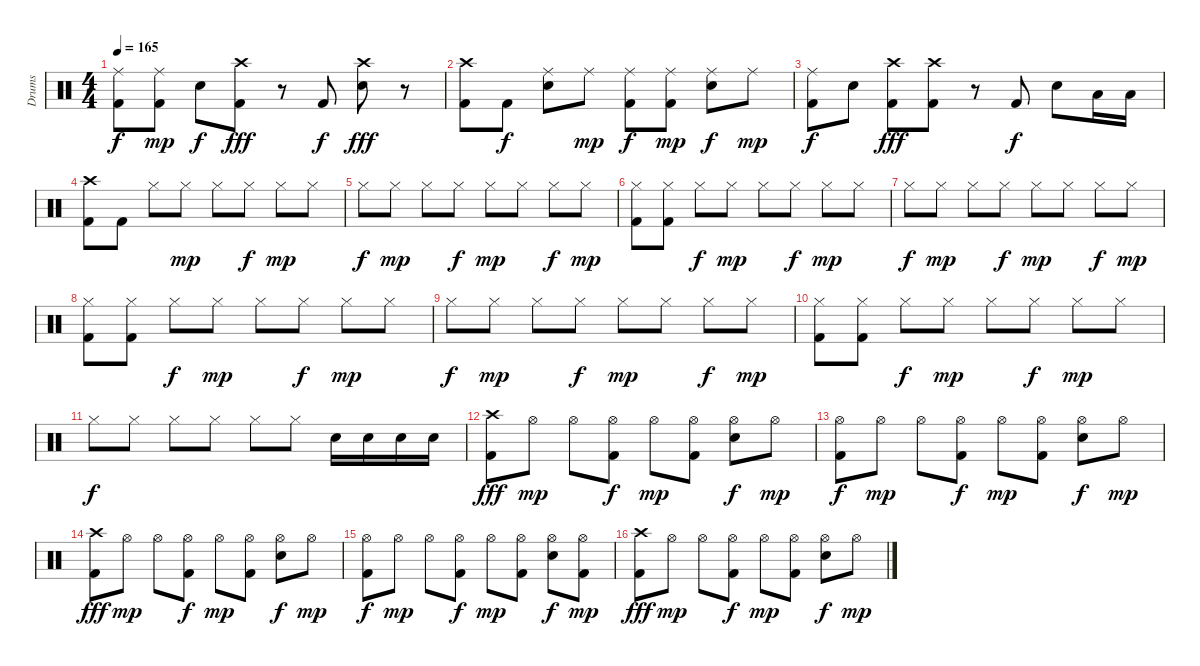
\track ("Drums" "Drums") {instrument percussion}
\staff {score}
\articulation defaults
\ts (4 4)
\tempo 165
\clef neutral
\ks c
("Ride (middle)" "Kick (hit) 2").8{dy f} ("Ride (middle)" "Kick (hit) 2").8{dy mp} "Electric Snare (hit)".8{dy f} ("Crash high (hit)" "Kick (hit) 2").8{dy fff} r.8 "Kick (hit) 2".8{dy f} ("Crash high (hit)" "Electric Snare (hit)").8{dy fff} r.8 |
("Crash high (hit)" "Kick (hit) 2").8 "Kick (hit) 2".8{dy f} ("Ride (middle)" "Electric Snare (hit)").8 "Ride (middle)".8{dy mp} ("Ride (middle)" "Kick (hit) 2").8{dy f} ("Ride (middle)" "Kick (hit) 2").8{dy mp} ("Ride (middle)" "Electric Snare (hit)").8{dy f} "Ride (middle)".8{dy mp} |
("Ride (middle)" "Kick (hit) 2").8{dy f} "Electric Snare (hit)".8 ("Crash high (hit)" "Kick (hit) 2").8{dy fff} ("Crash high (hit)" "Kick (hit) 2").8 r.8 "Kick (hit) 2".8{dy f} "Electric Snare (hit)".8 "Low Tom (hit)".16 "Low Tom (hit)".16 |
("Crash high (hit)" "Kick (hit) 2").8 "Kick (hit) 2".8 "Hi-Hat (closed)".8 "Hi-Hat (closed)".8{dy mp} "Hi-Hat (closed)".8 "Hi-Hat (closed)".8{dy f} "Hi-Hat (closed)".8{dy mp} "Hi-Hat (closed)".8 |
"Hi-Hat (closed)".8{dy f} "Hi-Hat (closed)".8{dy mp} "Hi-Hat (closed)".8 "Hi-Hat (closed)".8{dy f} "Hi-Hat (closed)".8{dy mp} "Hi-Hat (closed)".8 "Hi-Hat (closed)".8{dy f} "Hi-Hat (closed)".8{dy mp} |
("Hi-Hat (closed)" "Kick (hit) 2").8 ("Hi-Hat (closed)" "Kick (hit) 2").8 "Hi-Hat (closed)".8{dy f} "Hi-Hat (closed)".8{dy mp} "Hi-Hat (closed)".8 "Hi-Hat (closed)".8{dy f} "Hi-Hat (closed)".8{dy mp} "Hi-Hat (closed)".8 |
"Hi-Hat (closed)".8{dy f} "Hi-Hat (closed)".8{dy mp} "Hi-Hat (closed)".8 "Hi-Hat (closed)".8{dy f} "Hi-Hat (closed)".8{dy mp} "Hi-Hat (closed)".8 "Hi-Hat (closed)".8{dy f} "Hi-Hat (closed)".8{dy mp} |
("Hi-Hat (closed)" "Kick (hit) 2").8 ("Hi-Hat (closed)" "Kick (hit) 2").8 "Hi-Hat (closed)".8{dy f} "Hi-Hat (closed)".8{dy mp} "Hi-Hat (closed)".8 "Hi-Hat (closed)".8{dy f} "Hi-Hat (closed)".8{dy mp} "Hi-Hat (closed)".8 |
"Hi-Hat (closed)".8{dy f} "Hi-Hat (closed)".8{dy mp} "Hi-Hat (closed)".8 "Hi-Hat (closed)".8{dy f} "Hi-Hat (closed)".8{dy mp} "Hi-Hat (closed)".8 "Hi-Hat (closed)".8{dy f} "Hi-Hat (closed)".8{dy mp} |
("Hi-Hat (closed)" "Kick (hit) 2").8 ("Hi-Hat (closed)" "Kick (hit) 2").8 "Hi-Hat (closed)".8{dy f} "Hi-Hat (closed)".8{dy mp} "Hi-Hat (closed)".8 "Hi-Hat (closed)".8{dy f} "Hi-Hat (closed)".8{dy mp} "Hi-Hat (closed)".8 |
"Hi-Hat (closed)".8{dy f} "Hi-Hat (closed)".8 "Hi-Hat (closed)".8 "Hi-Hat (closed)".8 "Hi-Hat (closed)".8 "Hi-Hat (closed)".8 "Electric Snare (hit)".16 "Electric Snare (hit)".16 "Electric Snare (hit)".16 "Electric Snare (hit)".16 |
("Crash high (hit)" "Kick (hit) 2").8{dy fff} "Hi-Hat (open)".8{dy mp} "Hi-Hat (open)".8 ("Hi-Hat (open)" "Kick (hit) 2").8{dy f} "Hi-Hat (open)".8{dy mp} ("Hi-Hat (open)" "Kick (hit) 2").8 ("Hi-Hat (open)" "Electric Snare (hit)").8{dy f} "Hi-Hat (open)".8{dy mp} |
("Hi-Hat (open)" "Kick (hit) 2").8{dy f} "Hi-Hat (open)".8{dy mp} "Hi-Hat (open)".8 ("Hi-Hat (open)" "Kick (hit) 2").8{dy f} "Hi-Hat (open)".8{dy mp} ("Hi-Hat (open)" "Kick (hit) 2").8 ("Hi-Hat (open)" "Electric Snare (hit)").8{dy f} "Hi-Hat (open)".8{dy mp} |
("Crash high (hit)" "Kick (hit) 2").8{dy fff} "Hi-Hat (open)".8{dy mp} "Hi-Hat (open)".8 ("Hi-Hat (open)" "Kick (hit) 2").8{dy f} "Hi-Hat (open)".8{dy mp} ("Hi-Hat (open)" "Kick (hit) 2").8 ("Hi-Hat (open)" "Electric Snare (hit)").8{dy f} "Hi-Hat (open)".8{dy mp} |
("Hi-Hat (open)" "Kick (hit) 2").8{dy f} "Hi-Hat (open)".8{dy mp} "Hi-Hat (open)".8 ("Hi-Hat (open)" "Kick (hit) 2").8{dy f} "Hi-Hat (open)".8{dy mp} ("Hi-Hat (open)" "Kick (hit) 2").8 ("Hi-Hat (open)" "Electric Snare (hit)").8{dy f} ("Hi-Hat (open)" "Kick (hit) 2").8{dy mp} |
("Crash high (hit)" "Kick (hit) 2").8{dy fff} "Hi-Hat (open)".8{dy mp} "Hi-Hat (open)".8 ("Hi-Hat (open)" "Kick (hit) 2").8{dy f} "Hi-Hat (open)".8{dy mp} ("Hi-Hat (open)" "Kick (hit) 2").8 ("Hi-Hat (open)" "Electric Snare (hit)").8{dy f} "Hi-Hat (open)".8{dy mp}
